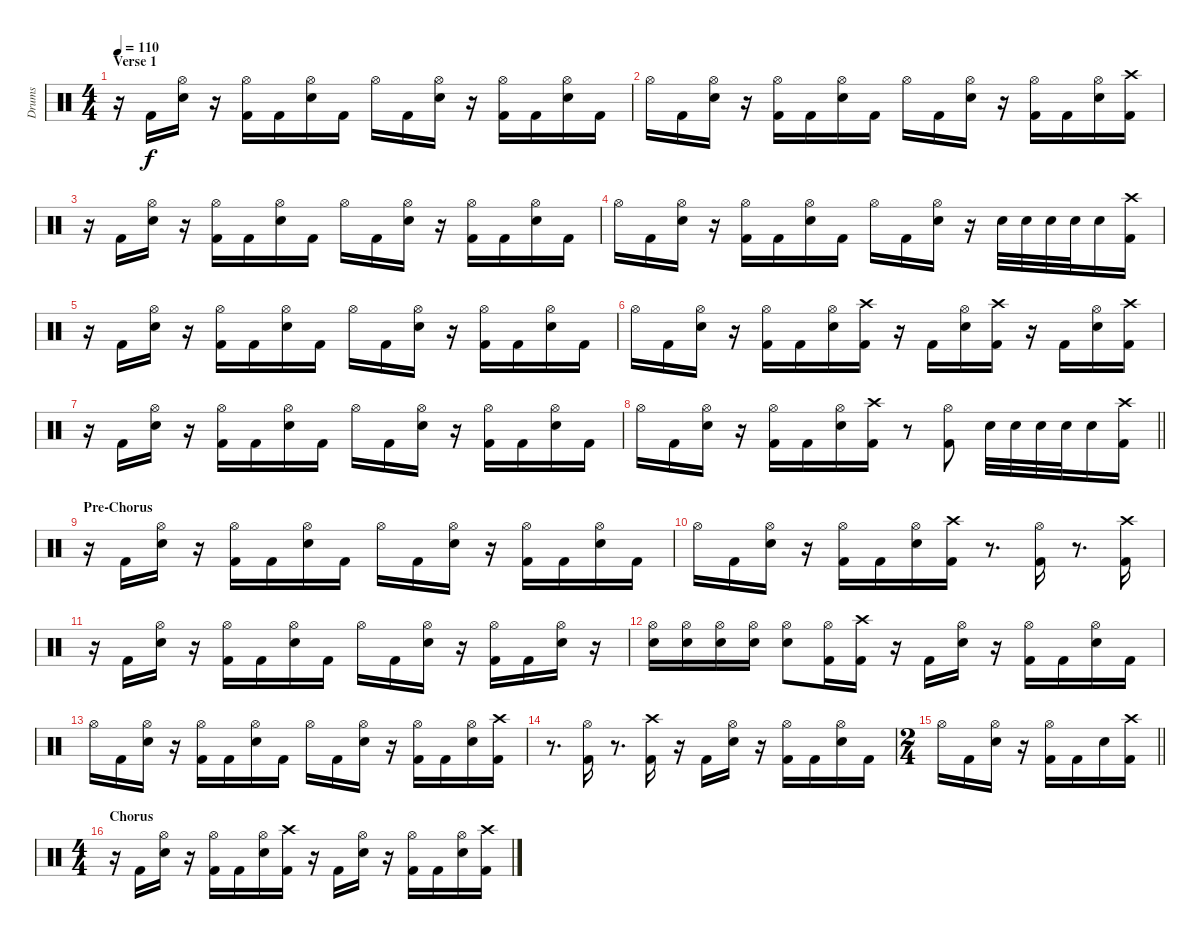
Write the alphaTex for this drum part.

\track ("Drums" "Drums") {instrument percussion}
\staff {score}
\articulation defaults
\ts (4 4)
\section ("" "Verse 1")
\tempo 110
\clef neutral
\ks c
r.16{dy f} "Kick (hit) 2".16 ("Hi-Hat (open)" "Snare (hit) 2").16 r.16 ("Hi-Hat (open)" "Kick (hit) 2").16 "Kick (hit) 2".16 ("Hi-Hat (open)" "Snare (hit) 2").16 "Kick (hit) 2".16 "Hi-Hat (open)".16 "Kick (hit) 2".16 ("Hi-Hat (open)" "Snare (hit) 2").16 r.16 ("Hi-Hat (open)" "Kick (hit) 2").16 "Kick (hit) 2".16 ("Hi-Hat (open)" "Snare (hit) 2").16 "Kick (hit) 2".16 |
"Hi-Hat (open)".16 "Kick (hit) 2".16 ("Hi-Hat (open)" "Snare (hit) 2").16 r.16 ("Hi-Hat (open)" "Kick (hit) 2").16 "Kick (hit) 2".16 ("Hi-Hat (open)" "Snare (hit) 2").16 "Kick (hit) 2".16 "Hi-Hat (open)".16 "Kick (hit) 2".16 ("Hi-Hat (open)" "Snare (hit) 2").16 r.16 ("Hi-Hat (open)" "Kick (hit) 2").16 "Kick (hit) 2".16 ("Hi-Hat (open)" "Snare (hit) 2").16 ("Crash high (hit)" "Kick (hit) 2").16 |
r.16 "Kick (hit) 2".16 ("Hi-Hat (open)" "Snare (hit) 2").16 r.16 ("Hi-Hat (open)" "Kick (hit) 2").16 "Kick (hit) 2".16 ("Hi-Hat (open)" "Snare (hit) 2").16 "Kick (hit) 2".16 "Hi-Hat (open)".16 "Kick (hit) 2".16 ("Hi-Hat (open)" "Snare (hit) 2").16 r.16 ("Hi-Hat (open)" "Kick (hit) 2").16 "Kick (hit) 2".16 ("Hi-Hat (open)" "Snare (hit) 2").16 "Kick (hit) 2".16 |
"Hi-Hat (open)".16 "Kick (hit) 2".16 ("Hi-Hat (open)" "Snare (hit) 2").16 r.16 ("Hi-Hat (open)" "Kick (hit) 2").16 "Kick (hit) 2".16 ("Hi-Hat (open)" "Snare (hit) 2").16 "Kick (hit) 2".16 "Hi-Hat (open)".16 "Kick (hit) 2".16 ("Hi-Hat (open)" "Snare (hit) 2").16 r.16 "Snare (hit) 2".32 "Snare (hit) 2".32 "Snare (hit) 2".32 "Snare (hit) 2".32 "Snare (hit) 2".16 ("Crash high (hit)" "Kick (hit) 2").16 |
r.16 "Kick (hit) 2".16 ("Hi-Hat (open)" "Snare (hit) 2").16 r.16 ("Hi-Hat (open)" "Kick (hit) 2").16 "Kick (hit) 2".16 ("Hi-Hat (open)" "Snare (hit) 2").16 "Kick (hit) 2".16 "Hi-Hat (open)".16 "Kick (hit) 2".16 ("Hi-Hat (open)" "Snare (hit) 2").16 r.16 ("Hi-Hat (open)" "Kick (hit) 2").16 "Kick (hit) 2".16 ("Hi-Hat (open)" "Snare (hit) 2").16 "Kick (hit) 2".16 |
"Hi-Hat (open)".16 "Kick (hit) 2".16 ("Hi-Hat (open)" "Snare (hit) 2").16 r.16 ("Hi-Hat (open)" "Kick (hit) 2").16 "Kick (hit) 2".16 ("Hi-Hat (open)" "Snare (hit) 2").16 ("Crash high (hit)" "Kick (hit) 2").16 r.16 "Kick (hit) 2".16 ("Hi-Hat (open)" "Snare (hit) 2").16 ("Crash high (hit)" "Kick (hit) 2").16 r.16 "Kick (hit) 2".16 ("Hi-Hat (open)" "Snare (hit) 2").16 ("Crash high (hit)" "Kick (hit) 2").16 |
r.16 "Kick (hit) 2".16 ("Hi-Hat (open)" "Snare (hit) 2").16 r.16 ("Hi-Hat (open)" "Kick (hit) 2").16 "Kick (hit) 2".16 ("Hi-Hat (open)" "Snare (hit) 2").16 "Kick (hit) 2".16 "Hi-Hat (open)".16 "Kick (hit) 2".16 ("Hi-Hat (open)" "Snare (hit) 2").16 r.16 ("Hi-Hat (open)" "Kick (hit) 2").16 "Kick (hit) 2".16 ("Hi-Hat (open)" "Snare (hit) 2").16 "Kick (hit) 2".16 |
\barLineRight lightlight "Hi-Hat (open)".16 "Kick (hit) 2".16
("Hi-Hat (open)" "Snare (hit) 2").16 r.16 ("Hi-Hat (open)" "Kick (hit) 2").16 "Kick (hit) 2".16 ("Hi-Hat (open)" "Snare (hit) 2").16 ("Crash high (hit)" "Kick (hit) 2").16 r.8 ("Hi-Hat (open)" "Kick (hit) 2").8 "Snare (hit) 2".32 "Snare (hit) 2".32 "Snare (hit) 2".32 "Snare (hit) 2".32 "Snare (hit) 2".16 ("Crash high (hit)" "Kick (hit) 2").16 |
\section ("" "Pre-Chorus")
r.16 "Kick (hit) 2".16 ("Hi-Hat (open)" "Snare (hit) 2").16 r.16 ("Hi-Hat (open)" "Kick (hit) 2").16 "Kick (hit) 2".16 ("Hi-Hat (open)" "Snare (hit) 2").16 "Kick (hit) 2".16 "Hi-Hat (open)".16 "Kick (hit) 2".16 ("Hi-Hat (open)" "Snare (hit) 2").16 r.16 ("Hi-Hat (open)" "Kick (hit) 2").16 "Kick (hit) 2".16 ("Hi-Hat (open)" "Snare (hit) 2").16 "Kick (hit) 2".16 |
"Hi-Hat (open)".16 "Kick (hit) 2".16 ("Hi-Hat (open)" "Snare (hit) 2").16 r.16 ("Hi-Hat (open)" "Kick (hit) 2").16 "Kick (hit) 2".16 ("Hi-Hat (open)" "Snare (hit) 2").16 ("Crash high (hit)" "Kick (hit) 2").16 r.8{d} ("Hi-Hat (open)" "Kick (hit) 2").16 r.8{d} ("Crash high (hit)" "Kick (hit) 2").16 |
r.16 "Kick (hit) 2".16 ("Hi-Hat (open)" "Snare (hit) 2").16 r.16 ("Hi-Hat (open)" "Kick (hit) 2").16 "Kick (hit) 2".16 ("Hi-Hat (open)" "Snare (hit) 2").16 "Kick (hit) 2".16 "Hi-Hat (open)".16 "Kick (hit) 2".16 ("Hi-Hat (open)" "Snare (hit) 2").16 r.16 ("Hi-Hat (open)" "Kick (hit) 2").16 "Kick (hit) 2".16 ("Hi-Hat (open)" "Snare (hit) 2").16 r.16 |
("Hi-Hat (open)" "Snare (hit) 2").16 ("Hi-Hat (open)" "Snare (hit) 2").16 ("Hi-Hat (open)" "Snare (hit) 2").16 ("Hi-Hat (open)" "Snare (hit) 2").16 ("Hi-Hat (open)" "Snare (hit) 2").8 ("Hi-Hat (open)" "Kick (hit) 2").16 ("Crash high (hit)" "Kick (hit) 2").16 r.16 "Kick (hit) 2".16 ("Hi-Hat (open)" "Snare (hit) 2").16 r.16 ("Hi-Hat (open)" "Kick (hit) 2").16 "Kick (hit) 2".16 ("Hi-Hat (open)" "Snare (hit) 2").16 "Kick (hit) 2".16 |
"Hi-Hat (open)".16 "Kick (hit) 2".16 ("Hi-Hat (open)" "Snare (hit) 2").16 r.16 ("Hi-Hat (open)" "Kick (hit) 2").16 "Kick (hit) 2".16 ("Hi-Hat (open)" "Snare (hit) 2").16 "Kick (hit) 2".16 "Hi-Hat (open)".16 "Kick (hit) 2".16 ("Hi-Hat (open)" "Snare (hit) 2").16 r.16 ("Hi-Hat (open)" "Kick (hit) 2").16 "Kick (hit) 2".16 ("Hi-Hat (open)" "Snare (hit) 2").16 ("Crash high (hit)" "Kick (hit) 2").16 |
r.8{d} ("Hi-Hat (open)" "Kick (hit) 2").16 r.8{d} ("Crash high (hit)" "Kick (hit) 2").16 r.16 "Kick (hit) 2".16 ("Hi-Hat (open)" "Snare (hit) 2").16 r.16 ("Hi-Hat (open)" "Kick (hit) 2").16 "Kick (hit) 2".16 ("Hi-Hat (open)" "Snare (hit) 2").16 "Kick (hit) 2".16 |
\ts (2 4)
\barLineRight lightlight "Hi-Hat (open)".16 "Kick (hit) 2".16
("Hi-Hat (open)" "Snare (hit) 2").16 r.16 ("Hi-Hat (open)" "Kick (hit) 2").16 "Kick (hit) 2".16 "Snare (hit) 2".16 ("Crash high (hit)" "Kick (hit) 2").16 |
\ts (4 4)
\section ("" "Chorus")
r.16 "Kick (hit) 2".16 ("Hi-Hat (open)" "Snare (hit) 2").16 r.16 ("Hi-Hat (open)" "Kick (hit) 2").16 "Kick (hit) 2".16 ("Hi-Hat (open)" "Snare (hit) 2").16 ("Crash high (hit)" "Kick (hit) 2").16 r.16 "Kick (hit) 2".16 ("Hi-Hat (open)" "Snare (hit) 2").16 r.16 ("Hi-Hat (open)" "Kick (hit) 2").16 "Kick (hit) 2".16 ("Hi-Hat (open)" "Snare (hit) 2").16 ("Crash high (hit)" "Kick (hit) 2").16
